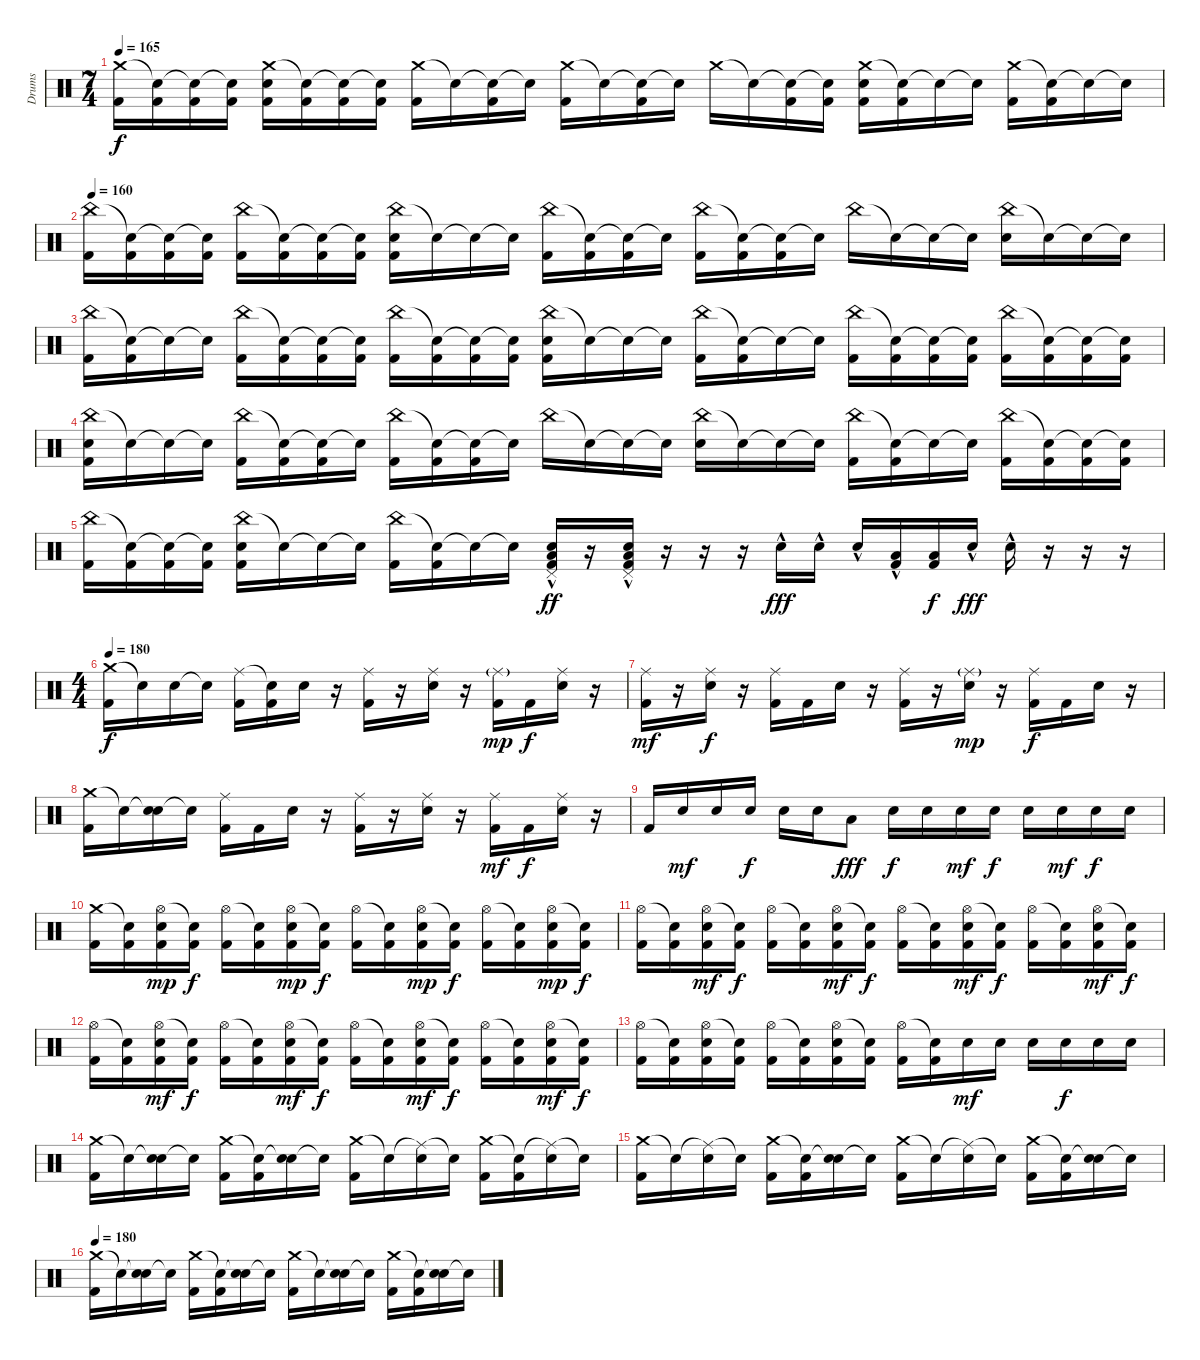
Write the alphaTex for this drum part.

\track ("Drums" "Drums") {instrument percussion}
\staff {score}
\articulation defaults
\ts (7 4)
\tempo 165
\clef neutral
\ks c
("Crash medium (hit)" "Kick (hit) 2").16{dy f} ("Snare (hit)"{t} "Kick (hit) 2").16 ("Snare (hit)"{t} "Kick (hit) 2").16 ("Snare (hit)"{t} "Kick (hit) 2").16 ("Crash medium (hit)" "Electric Snare (hit)" "Kick (hit) 2").16 ("Snare (hit)"{t} "Kick (hit) 2").16 ("Snare (hit)"{t} "Kick (hit) 2").16 ("Snare (hit)"{t} "Kick (hit) 2").16 ("Crash medium (hit)" "Kick (hit) 2").16 "Snare (hit)"{t}.16 ("Snare (hit)"{t} "Kick (hit) 2").16 "Snare (hit)"{t}.16 ("Crash medium (hit)" "Kick (hit) 2").16 "Snare (hit)"{t}.16 ("Snare (hit)"{t} "Kick (hit) 2").16 "Snare (hit)"{t}.16 "Crash medium (hit)".16 "Snare (hit)"{t}.16 ("Snare (hit)"{t} "Kick (hit) 2").16 ("Snare (hit)"{t} "Kick (hit) 2").16 ("Crash medium (hit)" "Electric Snare (hit)" "Kick (hit) 2").16 ("Snare (hit)"{t} "Kick (hit) 2").16 "Snare (hit)"{t}.16 "Snare (hit)"{t}.16 ("Crash medium (hit)" "Kick (hit) 2").16 ("Snare (hit)"{t} "Kick (hit) 2").16 "Snare (hit)"{t}.16 "Snare (hit)"{t}.16 |
\tempo 160
("China (hit)" "Kick (hit) 2").16 ("Snare (hit)"{t} "Kick (hit) 2").16 ("Snare (hit)"{t} "Kick (hit) 2").16 ("Snare (hit)"{t} "Kick (hit) 2").16 ("China (hit)" "Kick (hit) 2").16 ("Snare (hit)"{t} "Kick (hit) 2").16 ("Snare (hit)"{t} "Kick (hit) 2").16 ("Snare (hit)"{t} "Kick (hit) 2").16 ("China (hit)" "Electric Snare (hit)" "Kick (hit) 2").16 "Snare (hit)"{t}.16 "Snare (hit)"{t}.16 "Snare (hit)"{t}.16 ("China (hit)" "Kick (hit) 2").16 ("Snare (hit)"{t} "Kick (hit) 2").16 ("Snare (hit)"{t} "Kick (hit) 2").16 "Snare (hit)"{t}.16 ("China (hit)" "Kick (hit) 2").16 ("Snare (hit)"{t} "Kick (hit) 2").16 ("Snare (hit)"{t} "Kick (hit) 2").16 "Snare (hit)"{t}.16 "China (hit)".16 "Snare (hit)"{t}.16 "Snare (hit)"{t}.16 "Snare (hit)"{t}.16 ("China (hit)" "Electric Snare (hit)").16 "Snare (hit)"{t}.16 "Snare (hit)"{t}.16 "Snare (hit)"{t}.16 |
("China (hit)" "Kick (hit) 2").16 ("Snare (hit)"{t} "Kick (hit) 2").16 "Snare (hit)"{t}.16 "Snare (hit)"{t}.16 ("China (hit)" "Kick (hit) 2").16 ("Snare (hit)"{t} "Kick (hit) 2").16 ("Snare (hit)"{t} "Kick (hit) 2").16 ("Snare (hit)"{t} "Kick (hit) 2").16 ("China (hit)" "Kick (hit) 2").16 ("Snare (hit)"{t} "Kick (hit) 2").16 ("Snare (hit)"{t} "Kick (hit) 2").16 ("Snare (hit)"{t} "Kick (hit) 2").16 ("China (hit)" "Electric Snare (hit)" "Kick (hit) 2").16 "Snare (hit)"{t}.16 "Snare (hit)"{t}.16 "Snare (hit)"{t}.16 ("China (hit)" "Kick (hit) 2").16 ("Snare (hit)"{t} "Kick (hit) 2").16 "Snare (hit)"{t}.16 "Snare (hit)"{t}.16 ("China (hit)" "Kick (hit) 2").16 ("Snare (hit)"{t} "Kick (hit) 2").16 ("Snare (hit)"{t} "Kick (hit) 2").16 ("Snare (hit)"{t} "Kick (hit) 2").16 ("China (hit)" "Kick (hit) 2").16 ("Snare (hit)"{t} "Kick (hit) 2").16 ("Snare (hit)"{t} "Kick (hit) 2").16 ("Snare (hit)"{t} "Kick (hit) 2").16 |
("China (hit)" "Electric Snare (hit)" "Kick (hit) 2").16 "Snare (hit)"{t}.16 "Snare (hit)"{t}.16 "Snare (hit)"{t}.16 ("China (hit)" "Kick (hit) 2").16 ("Snare (hit)"{t} "Kick (hit) 2").16 ("Snare (hit)"{t} "Kick (hit) 2").16 "Snare (hit)"{t}.16 ("China (hit)" "Kick (hit) 2").16 ("Snare (hit)"{t} "Kick (hit) 2").16 ("Snare (hit)"{t} "Kick (hit) 2").16 "Snare (hit)"{t}.16 "China (hit)".16 "Snare (hit)"{t}.16 "Snare (hit)"{t}.16 "Snare (hit)"{t}.16 ("China (hit)" "Electric Snare (hit)").16 "Snare (hit)"{t}.16 "Snare (hit)"{t}.16 "Snare (hit)"{t}.16 ("China (hit)" "Kick (hit) 2").16 ("Snare (hit)"{t} "Kick (hit) 2").16 "Snare (hit)"{t}.16 "Snare (hit)"{t}.16 ("China (hit)" "Kick (hit) 2").16 ("Snare (hit)"{t} "Kick (hit) 2").16 ("Snare (hit)"{t} "Kick (hit) 2").16 ("Snare (hit)"{t} "Kick (hit) 2").16 |
("China (hit)" "Kick (hit) 2").16 ("Snare (hit)"{t} "Kick (hit) 2").16 ("Snare (hit)"{t} "Kick (hit) 2").16 ("Snare (hit)"{t} "Kick (hit) 2").16 ("China (hit)" "Electric Snare (hit)" "Kick (hit) 2").16 "Snare (hit)"{t}.16 "Snare (hit)"{t}.16 "Snare (hit)"{t}.16 ("China (hit)" "Kick (hit) 2").16 ("Snare (hit)"{t} "Kick (hit) 2").16 "Snare (hit)"{t}.16 "Snare (hit)"{t}.16 ("Pedal Hi-Hat (hit)"{hac} "Electric Snare (hit)"{hac} "Low Floor Tom (hit)"{hac} "Kick (hit) 2").16{dy ff} r.16 ("Pedal Hi-Hat (hit)"{hac} "Electric Snare (hit)"{hac} "Low Floor Tom (hit)"{hac} "Kick (hit) 2").16 r.16 r.16 r.16 "Electric Snare (hit)"{hac}.16{dy fff} "Electric Snare (hit)"{hac}.16 "Electric Snare (hit)"{hac}.16 ("Low Floor Tom (hit)"{hac} "Kick (hit) 2").16 ("Low Floor Tom (hit)" "Kick (hit) 2").16{dy f} "Electric Snare (hit)"{hac}.16{dy fff} "Electric Snare (hit)"{hac}.16 r.16 r.16 r.16 |
\ts (4 4)
\tempo 180
("Crash medium (hit)" "Kick (hit) 2").16{dy f} "Snare (hit)"{t}.16 "Electric Snare (hit)".16 "Snare (hit)"{t}.16 ("Ride (middle)" "Kick (hit) 2").16 ("Snare (hit)"{t} "Kick (hit) 2").16 "Electric Snare (hit)".16 r.16 ("Ride (middle)" "Kick (hit) 2").16 r.16 ("Ride (middle)" "Electric Snare (hit)").16 r.16 ("Ride (middle)"{g} "Kick (hit) 2").16{dy mp} "Kick (hit) 2".16{dy f} ("Ride (middle)" "Electric Snare (hit)").16 r.16 |
("Ride (middle)" "Kick (hit) 2").16{dy mf} r.16 ("Ride (middle)" "Electric Snare (hit)").16{dy f} r.16 ("Ride (middle)" "Kick (hit) 2").16 "Kick (hit) 2".16 "Electric Snare (hit)".16 r.16 ("Ride (middle)" "Kick (hit) 2").16 r.16 ("Ride (middle)"{g} "Electric Snare (hit)").16{dy mp} r.16 ("Ride (middle)" "Kick (hit) 2").16{dy f} "Kick (hit) 2".16 "Electric Snare (hit)".16 r.16 |
("Crash medium (hit)" "Kick (hit) 2").16 "Snare (hit)"{t}.16 ("Snare (hit)"{t} "Electric Snare (hit)").16 "Snare (hit)"{t}.16 ("Ride (middle)" "Kick (hit) 2").16 "Kick (hit) 2".16 "Electric Snare (hit)".16 r.16 ("Ride (middle)" "Kick (hit) 2").16 r.16 ("Ride (middle)" "Electric Snare (hit)").16 r.16 ("Ride (middle)" "Kick (hit) 2").16{dy mf} "Kick (hit) 2".16{dy f} ("Ride (middle)" "Electric Snare (hit)").16 r.16 |
"Kick (hit) 2".16 "Electric Snare (hit)".16{dy mf} "Electric Snare (hit)".16 "Electric Snare (hit)".16{dy f} "Electric Snare (hit)".16 "Electric Snare (hit)".16 "Low Tom (hit)".8{dy fff} "Electric Snare (hit)".16{dy f} "Electric Snare (hit)".16 "Electric Snare (hit)".16{dy mf} "Electric Snare (hit)".16{dy f} "Electric Snare (hit)".16 "Electric Snare (hit)".16{dy mf} "Electric Snare (hit)".16{dy f} "Electric Snare (hit)".16 |
("Crash medium (hit)" "Kick (hit) 2").16 ("Snare (hit)"{t} "Kick (hit) 2").16 ("Hi-Hat (open)" "Electric Snare (hit)" "Kick (hit) 2").16{dy mp} ("Snare (hit)"{t} "Kick (hit) 2").16{dy f} ("Hi-Hat (open)" "Kick (hit) 2").16 ("Snare (hit)"{t} "Kick (hit) 2").16 ("Hi-Hat (open)" "Electric Snare (hit)" "Kick (hit) 2").16{dy mp} ("Snare (hit)"{t} "Kick (hit) 2").16{dy f} ("Hi-Hat (open)" "Kick (hit) 2").16 ("Snare (hit)"{t} "Kick (hit) 2").16 ("Hi-Hat (open)" "Electric Snare (hit)" "Kick (hit) 2").16{dy mp} ("Snare (hit)"{t} "Kick (hit) 2").16{dy f} ("Hi-Hat (open)" "Kick (hit) 2").16 ("Snare (hit)"{t} "Kick (hit) 2").16 ("Hi-Hat (open)" "Electric Snare (hit)" "Kick (hit) 2").16{dy mp} ("Snare (hit)"{t} "Kick (hit) 2").16{dy f} |
("Hi-Hat (open)" "Kick (hit) 2").16 ("Snare (hit)"{t} "Kick (hit) 2").16 ("Hi-Hat (open)" "Electric Snare (hit)" "Kick (hit) 2").16{dy mf} ("Snare (hit)"{t} "Kick (hit) 2").16{dy f} ("Hi-Hat (open)" "Kick (hit) 2").16 ("Snare (hit)"{t} "Kick (hit) 2").16 ("Hi-Hat (open)" "Electric Snare (hit)" "Kick (hit) 2").16{dy mf} ("Snare (hit)"{t} "Kick (hit) 2").16{dy f} ("Hi-Hat (open)" "Kick (hit) 2").16 ("Snare (hit)"{t} "Kick (hit) 2").16 ("Hi-Hat (open)" "Electric Snare (hit)" "Kick (hit) 2").16{dy mf} ("Snare (hit)"{t} "Kick (hit) 2").16{dy f} ("Hi-Hat (open)" "Kick (hit) 2").16 ("Snare (hit)"{t} "Kick (hit) 2").16 ("Hi-Hat (open)" "Electric Snare (hit)" "Kick (hit) 2").16{dy mf} ("Snare (hit)"{t} "Kick (hit) 2").16{dy f} |
("Hi-Hat (open)" "Kick (hit) 2").16 ("Snare (hit)"{t} "Kick (hit) 2").16 ("Hi-Hat (open)" "Electric Snare (hit)" "Kick (hit) 2").16{dy mf} ("Snare (hit)"{t} "Kick (hit) 2").16{dy f} ("Hi-Hat (open)" "Kick (hit) 2").16 ("Snare (hit)"{t} "Kick (hit) 2").16 ("Hi-Hat (open)" "Electric Snare (hit)" "Kick (hit) 2").16{dy mf} ("Snare (hit)"{t} "Kick (hit) 2").16{dy f} ("Hi-Hat (open)" "Kick (hit) 2").16 ("Snare (hit)"{t} "Kick (hit) 2").16 ("Hi-Hat (open)" "Electric Snare (hit)" "Kick (hit) 2").16{dy mf} ("Snare (hit)"{t} "Kick (hit) 2").16{dy f} ("Hi-Hat (open)" "Kick (hit) 2").16 ("Snare (hit)"{t} "Kick (hit) 2").16 ("Hi-Hat (open)" "Electric Snare (hit)" "Kick (hit) 2").16{dy mf} ("Snare (hit)"{t} "Kick (hit) 2").16{dy f} |
("Hi-Hat (open)" "Kick (hit) 2").16 ("Snare (hit)"{t} "Kick (hit) 2").16 ("Hi-Hat (open)" "Electric Snare (hit)" "Kick (hit) 2").16 ("Snare (hit)"{t} "Kick (hit) 2").16 ("Hi-Hat (open)" "Kick (hit) 2").16 ("Snare (hit)"{t} "Kick (hit) 2").16 ("Hi-Hat (open)" "Electric Snare (hit)" "Kick (hit) 2").16 ("Snare (hit)"{t} "Kick (hit) 2").16 ("Hi-Hat (open)" "Kick (hit) 2").16 ("Snare (hit)"{t} "Kick (hit) 2").16 "Electric Snare (hit)".16{dy mf} "Electric Snare (hit)".16 "Electric Snare (hit)".16 "Electric Snare (hit)".16{dy f} "Electric Snare (hit)".16 "Electric Snare (hit)".16 |
("Crash medium (hit)" "Kick (hit) 2").16 "Snare (hit)"{t}.16 ("Snare (hit)"{t} "Electric Snare (hit)").16 "Snare (hit)"{t}.16 ("Crash medium (hit)" "Kick (hit) 2").16 ("Snare (hit)"{t} "Kick (hit) 2").16 ("Snare (hit)"{t} "Electric Snare (hit)").16 "Snare (hit)"{t}.16 ("Crash medium (hit)" "Kick (hit) 2").16 "Snare (hit)"{t}.16 ("Ride (middle)"{t} "Electric Snare (hit)").16 "Snare (hit)"{t}.16 ("Crash medium (hit)" "Kick (hit) 2").16 ("Snare (hit)"{t} "Kick (hit) 2").16 ("Ride (middle)"{t} "Electric Snare (hit)").16 "Snare (hit)"{t}.16 |
("Crash medium (hit)" "Kick (hit) 2").16 "Snare (hit)"{t}.16 ("Ride (middle)"{t} "Electric Snare (hit)").16 "Snare (hit)"{t}.16 ("Crash medium (hit)" "Kick (hit) 2").16 ("Snare (hit)"{t} "Kick (hit) 2").16 ("Snare (hit)"{t} "Electric Snare (hit)").16 "Snare (hit)"{t}.16 ("Crash medium (hit)" "Kick (hit) 2").16 "Snare (hit)"{t}.16 ("Ride (middle)"{t} "Electric Snare (hit)").16 "Snare (hit)"{t}.16 ("Crash medium (hit)" "Kick (hit) 2").16 ("Snare (hit)"{t} "Kick (hit) 2").16 ("Snare (hit)"{t} "Electric Snare (hit)").16 "Snare (hit)"{t}.16 |
\tempo 180
("Crash medium (hit)" "Kick (hit) 2").16 "Snare (hit)"{t}.16 ("Snare (hit)"{t} "Electric Snare (hit)").16 "Snare (hit)"{t}.16 ("Crash medium (hit)" "Kick (hit) 2").16 ("Snare (hit)"{t} "Kick (hit) 2").16 ("Snare (hit)"{t} "Electric Snare (hit)").16 "Snare (hit)"{t}.16 ("Crash medium (hit)" "Kick (hit) 2").16 "Snare (hit)"{t}.16 ("Snare (hit)"{t} "Electric Snare (hit)").16 "Snare (hit)"{t}.16 ("Crash medium (hit)" "Kick (hit) 2").16 ("Snare (hit)"{t} "Kick (hit) 2").16 ("Snare (hit)"{t} "Electric Snare (hit)").16 "Snare (hit)"{t}.16
